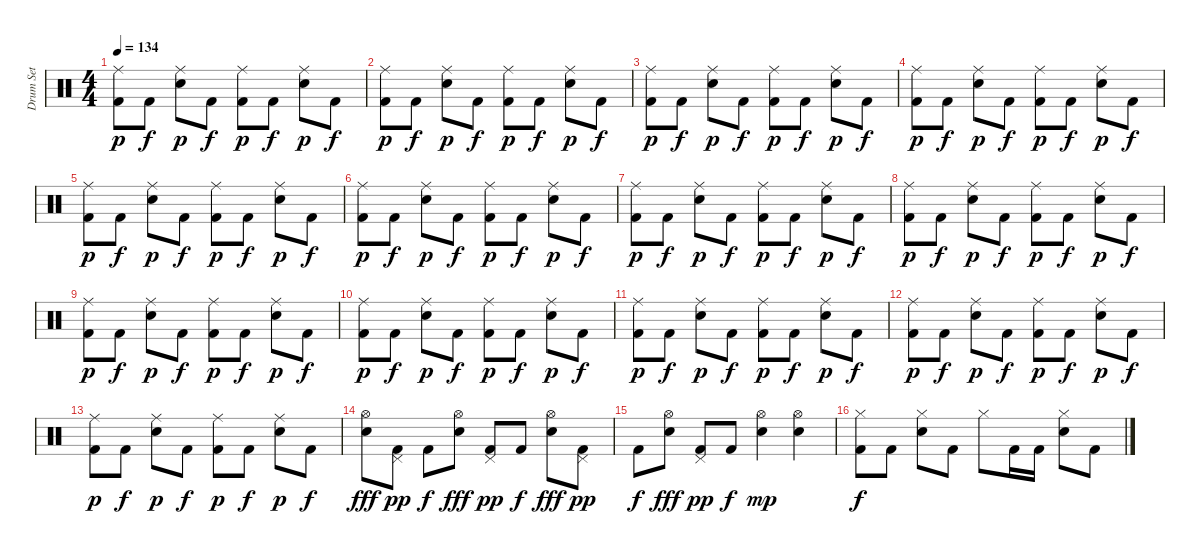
\track ("Drum Set" "Drum Set") {instrument percussion}
\staff {score}
\articulation defaults
\ts (4 4)
\tempo 134
\clef neutral
\ks c
("Ride (middle)" "Kick (hit) 2").8{dy p} "Kick (hit) 2".8{dy f} ("Electric Snare (hit)" "Ride (middle)").8{dy p} "Kick (hit) 2".8{dy f} ("Kick (hit) 2" "Ride (middle)").8{dy p} "Kick (hit) 2".8{dy f} ("Electric Snare (hit)" "Ride (middle)").8{dy p} "Kick (hit) 2".8{dy f} |
("Ride (middle)" "Kick (hit) 2").8{dy p} "Kick (hit) 2".8{dy f} ("Electric Snare (hit)" "Ride (middle)").8{dy p} "Kick (hit) 2".8{dy f} ("Kick (hit) 2" "Ride (middle)").8{dy p} "Kick (hit) 2".8{dy f} ("Electric Snare (hit)" "Ride (middle)").8{dy p} "Kick (hit) 2".8{dy f} |
("Ride (middle)" "Kick (hit) 2").8{dy p} "Kick (hit) 2".8{dy f} ("Electric Snare (hit)" "Ride (middle)").8{dy p} "Kick (hit) 2".8{dy f} ("Kick (hit) 2" "Ride (middle)").8{dy p} "Kick (hit) 2".8{dy f} ("Electric Snare (hit)" "Ride (middle)").8{dy p} "Kick (hit) 2".8{dy f} |
("Ride (middle)" "Kick (hit) 2").8{dy p} "Kick (hit) 2".8{dy f} ("Electric Snare (hit)" "Ride (middle)").8{dy p} "Kick (hit) 2".8{dy f} ("Kick (hit) 2" "Ride (middle)").8{dy p} "Kick (hit) 2".8{dy f} ("Electric Snare (hit)" "Ride (middle)").8{dy p} "Kick (hit) 2".8{dy f} |
("Ride (middle)" "Kick (hit) 2").8{dy p} "Kick (hit) 2".8{dy f} ("Electric Snare (hit)" "Ride (middle)").8{dy p} "Kick (hit) 2".8{dy f} ("Kick (hit) 2" "Ride (middle)").8{dy p} "Kick (hit) 2".8{dy f} ("Electric Snare (hit)" "Ride (middle)").8{dy p} "Kick (hit) 2".8{dy f} |
("Ride (middle)" "Kick (hit) 2").8{dy p} "Kick (hit) 2".8{dy f} ("Electric Snare (hit)" "Ride (middle)").8{dy p} "Kick (hit) 2".8{dy f} ("Kick (hit) 2" "Ride (middle)").8{dy p} "Kick (hit) 2".8{dy f} ("Electric Snare (hit)" "Ride (middle)").8{dy p} "Kick (hit) 2".8{dy f} |
("Ride (middle)" "Kick (hit) 2").8{dy p} "Kick (hit) 2".8{dy f} ("Electric Snare (hit)" "Ride (middle)").8{dy p} "Kick (hit) 2".8{dy f} ("Kick (hit) 2" "Ride (middle)").8{dy p} "Kick (hit) 2".8{dy f} ("Electric Snare (hit)" "Ride (middle)").8{dy p} "Kick (hit) 2".8{dy f} |
("Ride (middle)" "Kick (hit) 2").8{dy p} "Kick (hit) 2".8{dy f} ("Electric Snare (hit)" "Ride (middle)").8{dy p} "Kick (hit) 2".8{dy f} ("Kick (hit) 2" "Ride (middle)").8{dy p} "Kick (hit) 2".8{dy f} ("Electric Snare (hit)" "Ride (middle)").8{dy p} "Kick (hit) 2".8{dy f} |
("Ride (middle)" "Kick (hit) 2").8{dy p} "Kick (hit) 2".8{dy f} ("Electric Snare (hit)" "Ride (middle)").8{dy p} "Kick (hit) 2".8{dy f} ("Kick (hit) 2" "Ride (middle)").8{dy p} "Kick (hit) 2".8{dy f} ("Electric Snare (hit)" "Ride (middle)").8{dy p} "Kick (hit) 2".8{dy f} |
("Ride (middle)" "Kick (hit) 2").8{dy p} "Kick (hit) 2".8{dy f} ("Electric Snare (hit)" "Ride (middle)").8{dy p} "Kick (hit) 2".8{dy f} ("Kick (hit) 2" "Ride (middle)").8{dy p} "Kick (hit) 2".8{dy f} ("Electric Snare (hit)" "Ride (middle)").8{dy p} "Kick (hit) 2".8{dy f} |
("Ride (middle)" "Kick (hit) 2").8{dy p} "Kick (hit) 2".8{dy f} ("Electric Snare (hit)" "Ride (middle)").8{dy p} "Kick (hit) 2".8{dy f} ("Kick (hit) 2" "Ride (middle)").8{dy p} "Kick (hit) 2".8{dy f} ("Electric Snare (hit)" "Ride (middle)").8{dy p} "Kick (hit) 2".8{dy f} |
("Ride (middle)" "Kick (hit) 2").8{dy p} "Kick (hit) 2".8{dy f} ("Electric Snare (hit)" "Ride (middle)").8{dy p} "Kick (hit) 2".8{dy f} ("Kick (hit) 2" "Ride (middle)").8{dy p} "Kick (hit) 2".8{dy f} ("Electric Snare (hit)" "Ride (middle)").8{dy p} "Kick (hit) 2".8{dy f} |
("Ride (middle)" "Kick (hit) 2").8{dy p} "Kick (hit) 2".8{dy f} ("Electric Snare (hit)" "Ride (middle)").8{dy p} "Kick (hit) 2".8{dy f} ("Kick (hit) 2" "Ride (middle)").8{dy p} "Kick (hit) 2".8{dy f} ("Electric Snare (hit)" "Ride (middle)").8{dy p} "Kick (hit) 2".8{dy f} |
("Electric Snare (hit)" "Hi-Hat (open)").8{dy fff} ("Kick (hit) 2" "Pedal Hi-Hat (hit)").8{dy pp} "Kick (hit) 2".8{dy f} ("Electric Snare (hit)" "Hi-Hat (open)").8{dy fff} ("Kick (hit) 2" "Pedal Hi-Hat (hit)").8{dy pp} "Kick (hit) 2".8{dy f} ("Electric Snare (hit)" "Hi-Hat (open)").8{dy fff} ("Kick (hit) 2" "Pedal Hi-Hat (hit)").8{dy pp} |
"Kick (hit) 2".8{dy f} ("Electric Snare (hit)" "Hi-Hat (open)").8{dy fff} ("Kick (hit) 2" "Pedal Hi-Hat (hit)").8{dy pp} "Kick (hit) 2".8{dy f} ("Electric Snare (hit)" "Hi-Hat (open)").4{dy mp} ("Electric Snare (hit)" "Hi-Hat (open)").4 |
("Hi-Hat (closed)" "Kick (hit) 2").8{dy f} "Kick (hit) 2".8 ("Electric Snare (hit)" "Hi-Hat (closed)").8 "Kick (hit) 2".8 "Hi-Hat (closed)".8 "Kick (hit) 2".16 "Kick (hit) 2".16 ("Electric Snare (hit)" "Hi-Hat (closed)").8 "Kick (hit) 2".8
